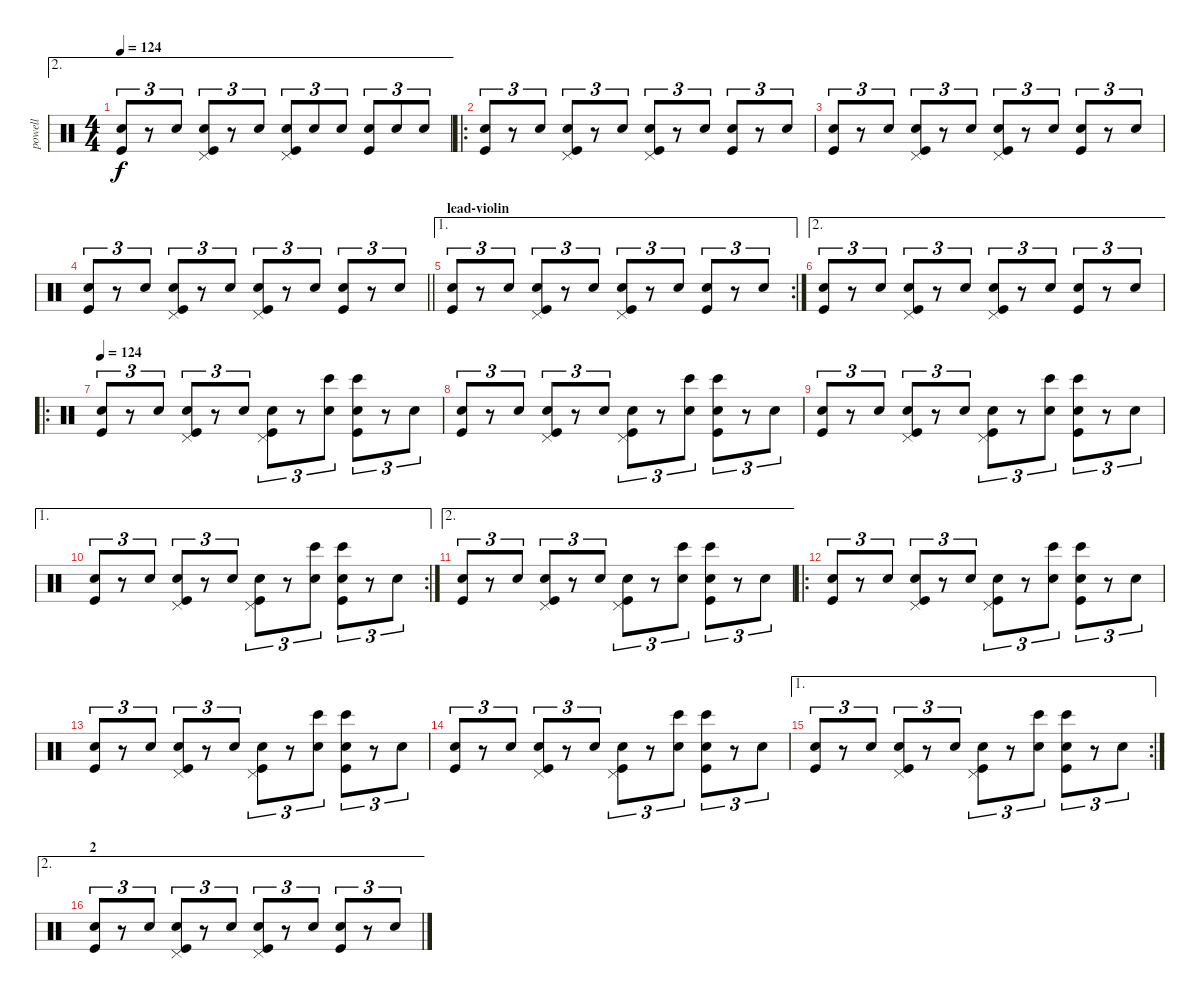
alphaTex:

\track ("powell" "powell") {instrument percussion}
\staff {score}
\articulation defaults
\ae 2
\ts (4 4)
\tempo 124
\clef neutral
\ks c
("Snare (hit) 2" "Kick (hit)").8{tu (3 2) dy f volume 9} r.8{tu (3 2)} "Snare (hit) 2".8{tu (3 2) volume 5} ("Snare (hit) 2" "Pedal Hi-Hat (hit)" "Kick (hit)").8{tu (3 2) volume 7} r.8{tu (3 2)} "Snare (hit) 2".8{tu (3 2) volume 8} ("Snare (hit) 2" "Pedal Hi-Hat (hit)" "Kick (hit)").8{tu (3 2)} "Snare (hit) 2".8{tu (3 2)} "Snare (hit) 2".8{tu (3 2)} ("Snare (hit) 2" "Kick (hit)").8{tu (3 2)} "Snare (hit) 2".8{tu (3 2) volume 2} "Snare (hit) 2".8{tu (3 2) volume 10} |
\ro
("Snare (hit) 2" "Kick (hit)").8{tu (3 2) volume 9} r.8{tu (3 2)} "Snare (hit) 2".8{tu (3 2) volume 5} ("Snare (hit) 2" "Pedal Hi-Hat (hit)" "Kick (hit)").8{tu (3 2) volume 7} r.8{tu (3 2)} "Snare (hit) 2".8{tu (3 2) volume 8} ("Snare (hit) 2" "Pedal Hi-Hat (hit)" "Kick (hit)").8{tu (3 2)} r.8{tu (3 2)} "Snare (hit) 2".8{tu (3 2)} ("Snare (hit) 2" "Kick (hit)").8{tu (3 2)} r.8{tu (3 2)} "Snare (hit) 2".8{tu (3 2)} |
("Snare (hit) 2" "Kick (hit)").8{tu (3 2) volume 9} r.8{tu (3 2)} "Snare (hit) 2".8{tu (3 2) volume 5} ("Snare (hit) 2" "Pedal Hi-Hat (hit)" "Kick (hit)").8{tu (3 2) volume 7} r.8{tu (3 2)} "Snare (hit) 2".8{tu (3 2) volume 8} ("Snare (hit) 2" "Pedal Hi-Hat (hit)" "Kick (hit)").8{tu (3 2)} r.8{tu (3 2)} "Snare (hit) 2".8{tu (3 2)} ("Snare (hit) 2" "Kick (hit)").8{tu (3 2)} r.8{tu (3 2)} "Snare (hit) 2".8{tu (3 2)} |
\barLineRight lightlight
("Snare (hit) 2" "Kick (hit)").8{tu (3 2) volume 9} r.8{tu (3 2)} "Snare (hit) 2".8{tu (3 2) volume 5} ("Snare (hit) 2" "Pedal Hi-Hat (hit)" "Kick (hit)").8{tu (3 2) volume 7} r.8{tu (3 2)} "Snare (hit) 2".8{tu (3 2) volume 8} ("Snare (hit) 2" "Pedal Hi-Hat (hit)" "Kick (hit)").8{tu (3 2)} r.8{tu (3 2)} "Snare (hit) 2".8{tu (3 2)} ("Snare (hit) 2" "Kick (hit)").8{tu (3 2)} r.8{tu (3 2)} "Snare (hit) 2".8{tu (3 2)} |
\ae 1
\rc 2
\section ("" "lead-violin")
("Snare (hit) 2" "Kick (hit)").8{tu (3 2) volume 9} r.8{tu (3 2)} "Snare (hit) 2".8{tu (3 2) volume 5} ("Snare (hit) 2" "Pedal Hi-Hat (hit)" "Kick (hit)").8{tu (3 2) volume 7} r.8{tu (3 2)} "Snare (hit) 2".8{tu (3 2) volume 8} ("Snare (hit) 2" "Pedal Hi-Hat (hit)" "Kick (hit)").8{tu (3 2)} r.8{tu (3 2)} "Snare (hit) 2".8{tu (3 2)} ("Snare (hit) 2" "Kick (hit)").8{tu (3 2)} r.8{tu (3 2)} "Snare (hit) 2".8{tu (3 2)} |
\ae 2
("Snare (hit) 2" "Kick (hit)").8{tu (3 2) volume 9} r.8{tu (3 2)} "Snare (hit) 2".8{tu (3 2) volume 5} ("Snare (hit) 2" "Pedal Hi-Hat (hit)" "Kick (hit)").8{tu (3 2) volume 7} r.8{tu (3 2)} "Snare (hit) 2".8{tu (3 2) volume 8} ("Snare (hit) 2" "Pedal Hi-Hat (hit)" "Kick (hit)").8{tu (3 2)} r.8{tu (3 2)} "Snare (hit) 2".8{tu (3 2)} ("Snare (hit) 2" "Kick (hit)").8{tu (3 2)} r.8{tu (3 2)} "Snare (hit) 2".8{tu (3 2)} |
\ro
\tempo 124
("Snare (hit) 2" "Kick (hit)").8{tu (3 2) volume 9} r.8{tu (3 2)} "Snare (hit) 2".8{tu (3 2) volume 5} ("Snare (hit) 2" "Pedal Hi-Hat (hit)" "Kick (hit)").8{tu (3 2) volume 7} r.8{tu (3 2)} "Snare (hit) 2".8{tu (3 2) volume 8} ("Snare (hit) 2" "Pedal Hi-Hat (hit)" "Kick (hit)").8{tu (3 2)} r.8{tu (3 2)} ("Snare (hit) 2" "Bongo High (hit)").8{tu (3 2) volume 16} ("Snare (hit) 2" "Bongo High (hit)" "Kick (hit)").8{tu (3 2)} r.8{tu (3 2)} "Snare (hit) 2".8{tu (3 2) volume 11} |
("Snare (hit) 2" "Kick (hit)").8{tu (3 2) volume 9} r.8{tu (3 2)} "Snare (hit) 2".8{tu (3 2) volume 5} ("Snare (hit) 2" "Pedal Hi-Hat (hit)" "Kick (hit)").8{tu (3 2) volume 7} r.8{tu (3 2)} "Snare (hit) 2".8{tu (3 2) volume 8} ("Snare (hit) 2" "Pedal Hi-Hat (hit)" "Kick (hit)").8{tu (3 2)} r.8{tu (3 2)} ("Snare (hit) 2" "Bongo High (hit)").8{tu (3 2) volume 16} ("Snare (hit) 2" "Bongo High (hit)" "Kick (hit)").8{tu (3 2)} r.8{tu (3 2)} "Snare (hit) 2".8{tu (3 2) volume 11} |
("Snare (hit) 2" "Kick (hit)").8{tu (3 2) volume 9} r.8{tu (3 2)} "Snare (hit) 2".8{tu (3 2) volume 5} ("Snare (hit) 2" "Pedal Hi-Hat (hit)" "Kick (hit)").8{tu (3 2) volume 7} r.8{tu (3 2)} "Snare (hit) 2".8{tu (3 2) volume 8} ("Snare (hit) 2" "Pedal Hi-Hat (hit)" "Kick (hit)").8{tu (3 2)} r.8{tu (3 2)} ("Snare (hit) 2" "Bongo High (hit)").8{tu (3 2) volume 16} ("Snare (hit) 2" "Bongo High (hit)" "Kick (hit)").8{tu (3 2)} r.8{tu (3 2)} "Snare (hit) 2".8{tu (3 2) volume 11} |
\ae 1
\rc 2
("Snare (hit) 2" "Kick (hit)").8{tu (3 2) volume 9} r.8{tu (3 2)} "Snare (hit) 2".8{tu (3 2) volume 5} ("Snare (hit) 2" "Pedal Hi-Hat (hit)" "Kick (hit)").8{tu (3 2) volume 7} r.8{tu (3 2)} "Snare (hit) 2".8{tu (3 2) volume 8} ("Snare (hit) 2" "Pedal Hi-Hat (hit)" "Kick (hit)").8{tu (3 2)} r.8{tu (3 2)} ("Snare (hit) 2" "Bongo High (hit)").8{tu (3 2) volume 16} ("Snare (hit) 2" "Bongo High (hit)" "Kick (hit)").8{tu (3 2)} r.8{tu (3 2)} "Snare (hit) 2".8{tu (3 2) volume 11} |
\ae 2
("Snare (hit) 2" "Kick (hit)").8{tu (3 2) volume 9} r.8{tu (3 2)} "Snare (hit) 2".8{tu (3 2) volume 5} ("Snare (hit) 2" "Pedal Hi-Hat (hit)" "Kick (hit)").8{tu (3 2) volume 7} r.8{tu (3 2)} "Snare (hit) 2".8{tu (3 2) volume 8} ("Snare (hit) 2" "Pedal Hi-Hat (hit)" "Kick (hit)").8{tu (3 2)} r.8{tu (3 2)} ("Snare (hit) 2" "Bongo High (hit)").8{tu (3 2) volume 16} ("Snare (hit) 2" "Bongo High (hit)" "Kick (hit)").8{tu (3 2)} r.8{tu (3 2)} "Snare (hit) 2".8{tu (3 2) volume 11} |
\ro
("Snare (hit) 2" "Kick (hit)").8{tu (3 2) volume 9} r.8{tu (3 2)} "Snare (hit) 2".8{tu (3 2) volume 5} ("Snare (hit) 2" "Pedal Hi-Hat (hit)" "Kick (hit)").8{tu (3 2) volume 7} r.8{tu (3 2)} "Snare (hit) 2".8{tu (3 2) volume 8} ("Snare (hit) 2" "Pedal Hi-Hat (hit)" "Kick (hit)").8{tu (3 2)} r.8{tu (3 2)} ("Snare (hit) 2" "Bongo High (hit)").8{tu (3 2) volume 16} ("Snare (hit) 2" "Bongo High (hit)" "Kick (hit)").8{tu (3 2)} r.8{tu (3 2)} "Snare (hit) 2".8{tu (3 2) volume 11} |
("Snare (hit) 2" "Kick (hit)").8{tu (3 2) volume 9} r.8{tu (3 2)} "Snare (hit) 2".8{tu (3 2) volume 5} ("Snare (hit) 2" "Pedal Hi-Hat (hit)" "Kick (hit)").8{tu (3 2) volume 7} r.8{tu (3 2)} "Snare (hit) 2".8{tu (3 2) volume 8} ("Snare (hit) 2" "Pedal Hi-Hat (hit)" "Kick (hit)").8{tu (3 2)} r.8{tu (3 2)} ("Snare (hit) 2" "Bongo High (hit)").8{tu (3 2) volume 16} ("Snare (hit) 2" "Bongo High (hit)" "Kick (hit)").8{tu (3 2)} r.8{tu (3 2)} "Snare (hit) 2".8{tu (3 2) volume 11} |
("Snare (hit) 2" "Kick (hit)").8{tu (3 2) volume 9} r.8{tu (3 2)} "Snare (hit) 2".8{tu (3 2) volume 5} ("Snare (hit) 2" "Pedal Hi-Hat (hit)" "Kick (hit)").8{tu (3 2) volume 7} r.8{tu (3 2)} "Snare (hit) 2".8{tu (3 2) volume 8} ("Snare (hit) 2" "Pedal Hi-Hat (hit)" "Kick (hit)").8{tu (3 2)} r.8{tu (3 2)} ("Snare (hit) 2" "Bongo High (hit)").8{tu (3 2) volume 16} ("Snare (hit) 2" "Bongo High (hit)" "Kick (hit)").8{tu (3 2)} r.8{tu (3 2)} "Snare (hit) 2".8{tu (3 2) volume 11} |
\ae 1
\rc 2
("Snare (hit) 2" "Kick (hit)").8{tu (3 2) volume 9} r.8{tu (3 2)} "Snare (hit) 2".8{tu (3 2) volume 5} ("Snare (hit) 2" "Pedal Hi-Hat (hit)" "Kick (hit)").8{tu (3 2) volume 7} r.8{tu (3 2)} "Snare (hit) 2".8{tu (3 2) volume 8} ("Snare (hit) 2" "Pedal Hi-Hat (hit)" "Kick (hit)").8{tu (3 2)} r.8{tu (3 2)} ("Snare (hit) 2" "Bongo High (hit)").8{tu (3 2) volume 16} ("Snare (hit) 2" "Bongo High (hit)" "Kick (hit)").8{tu (3 2)} r.8{tu (3 2)} "Snare (hit) 2".8{tu (3 2) volume 11} |
\ae 2
\section ("" "2")
("Snare (hit) 2" "Kick (hit)").8{tu (3 2) volume 9} r.8{tu (3 2)} "Snare (hit) 2".8{tu (3 2) volume 5} ("Snare (hit) 2" "Pedal Hi-Hat (hit)" "Kick (hit)").8{tu (3 2) volume 7} r.8{tu (3 2)} "Snare (hit) 2".8{tu (3 2) volume 8} ("Snare (hit) 2" "Pedal Hi-Hat (hit)" "Kick (hit)").8{tu (3 2)} r.8{tu (3 2)} "Snare (hit) 2".8{tu (3 2)} ("Snare (hit) 2" "Kick (hit)").8{tu (3 2)} r.8{tu (3 2)} "Snare (hit) 2".8{tu (3 2)}
